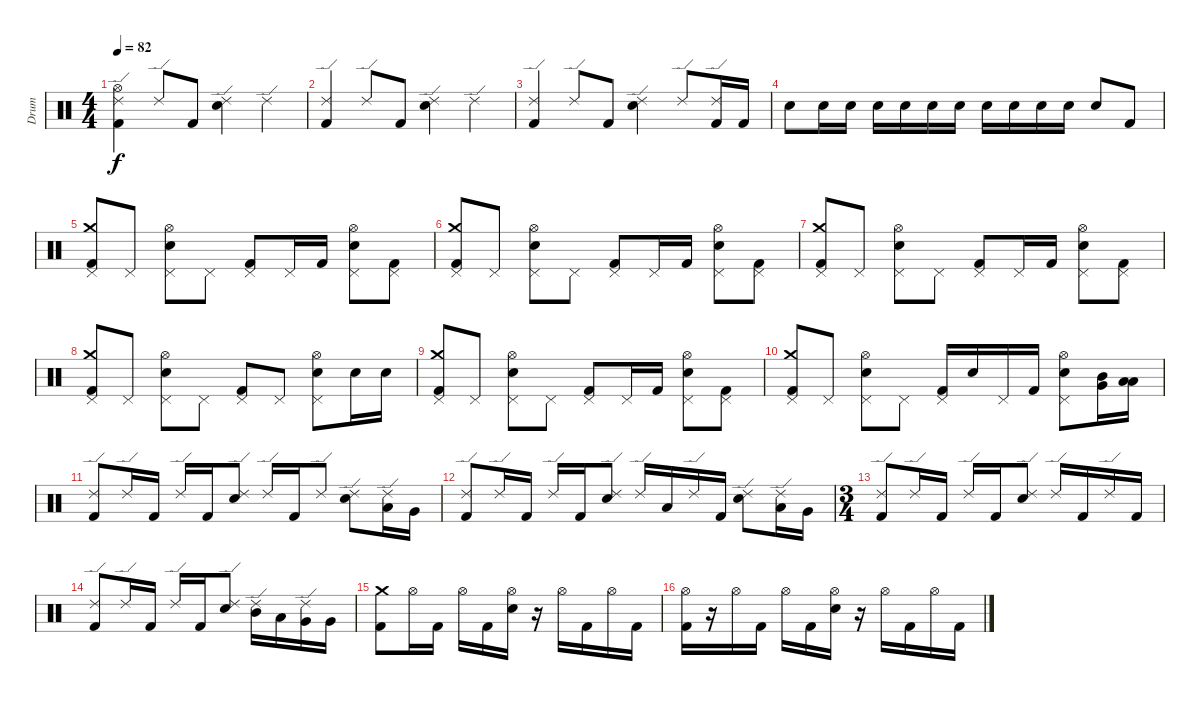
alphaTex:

\track ("Drum" "Drum") {instrument percussion}
\staff {score}
\articulation defaults
\ts (4 4)
\tempo 82
\clef neutral
\ks c
("Hi-Hat (open)" "Kick (hit) 2" "Ride (edge) 2").4{dy f} "Ride (edge) 2".8 "Kick (hit) 2".8 ("Electric Snare (hit)" "Ride (edge) 2").4 "Ride (edge) 2".4 |
("Kick (hit) 2" "Ride (edge) 2").4 "Ride (edge) 2".8 "Kick (hit) 2".8 ("Electric Snare (hit)" "Ride (edge) 2").4 "Ride (edge) 2".4 |
("Kick (hit) 2" "Ride (edge) 2").4 "Ride (edge) 2".8 "Kick (hit) 2".8 ("Electric Snare (hit)" "Ride (edge) 2").4 "Ride (edge) 2".8 ("Ride (edge) 2" "Kick (hit) 2").16 "Kick (hit) 2".16 |
"Electric Snare (hit)".8 "Electric Snare (hit)".16{volume 2} "Electric Snare (hit)".16{volume 3} "Electric Snare (hit)".16{volume 4} "Electric Snare (hit)".16{volume 5} "Electric Snare (hit)".16{volume 6} "Electric Snare (hit)".16{volume 6} "Electric Snare (hit)".16{volume 7} "Electric Snare (hit)".16{volume 8} "Electric Snare (hit)".16{volume 9} "Electric Snare (hit)".16{volume 10} "Electric Snare (hit)".8{volume 11} "Kick (hit) 2".8 |
("Crash medium (hit)" "Kick (hit) 2" "Pedal Hi-Hat (hit)").8 "Pedal Hi-Hat (hit)".8 ("Electric Snare (hit)" "Hi-Hat (open)" "Pedal Hi-Hat (hit)").8 "Pedal Hi-Hat (hit)".8 ("Kick (hit) 2" "Pedal Hi-Hat (hit)").8 "Pedal Hi-Hat (hit)".16 "Kick (hit) 2".16 ("Electric Snare (hit)" "Hi-Hat (open)" "Pedal Hi-Hat (hit)").8 ("Kick (hit) 2" "Pedal Hi-Hat (hit)").8 |
("Crash medium (hit)" "Kick (hit) 2" "Pedal Hi-Hat (hit)").8 "Pedal Hi-Hat (hit)".8 ("Electric Snare (hit)" "Hi-Hat (open)" "Pedal Hi-Hat (hit)").8 "Pedal Hi-Hat (hit)".8 ("Kick (hit) 2" "Pedal Hi-Hat (hit)").8 "Pedal Hi-Hat (hit)".16 "Kick (hit) 2".16 ("Electric Snare (hit)" "Hi-Hat (open)" "Pedal Hi-Hat (hit)").8 ("Kick (hit) 2" "Pedal Hi-Hat (hit)").8 |
("Crash medium (hit)" "Kick (hit) 2" "Pedal Hi-Hat (hit)").8 "Pedal Hi-Hat (hit)".8 ("Electric Snare (hit)" "Hi-Hat (open)" "Pedal Hi-Hat (hit)").8 "Pedal Hi-Hat (hit)".8 ("Kick (hit) 2" "Pedal Hi-Hat (hit)").8 "Pedal Hi-Hat (hit)".16 "Kick (hit) 2".16 ("Electric Snare (hit)" "Hi-Hat (open)" "Pedal Hi-Hat (hit)").8 ("Kick (hit) 2" "Pedal Hi-Hat (hit)").8 |
("Crash medium (hit)" "Kick (hit) 2" "Pedal Hi-Hat (hit)").8 "Pedal Hi-Hat (hit)".8 ("Electric Snare (hit)" "Hi-Hat (open)" "Pedal Hi-Hat (hit)").8 "Pedal Hi-Hat (hit)".8 ("Kick (hit) 2" "Pedal Hi-Hat (hit)").8 "Pedal Hi-Hat (hit)".8 ("Electric Snare (hit)" "Hi-Hat (open)" "Pedal Hi-Hat (hit)").8 "Electric Snare (hit)".16 "Electric Snare (hit)".16 |
("Crash medium (hit)" "Kick (hit) 2" "Pedal Hi-Hat (hit)").8 "Pedal Hi-Hat (hit)".8 ("Electric Snare (hit)" "Hi-Hat (open)" "Pedal Hi-Hat (hit)").8 "Pedal Hi-Hat (hit)".8 ("Kick (hit) 2" "Pedal Hi-Hat (hit)").8 "Pedal Hi-Hat (hit)".16 "Kick (hit) 2".16 ("Electric Snare (hit)" "Hi-Hat (open)" "Pedal Hi-Hat (hit)").8 ("Kick (hit) 2" "Pedal Hi-Hat (hit)").8 |
("Crash medium (hit)" "Kick (hit) 2" "Pedal Hi-Hat (hit)").8 "Pedal Hi-Hat (hit)".8 ("Electric Snare (hit)" "Hi-Hat (open)" "Pedal Hi-Hat (hit)").8 "Pedal Hi-Hat (hit)".8 ("Kick (hit) 2" "Pedal Hi-Hat (hit)").16 "Electric Snare (hit)".16 "Pedal Hi-Hat (hit)".16 "Kick (hit) 2".16 ("Electric Snare (hit)" "Hi-Hat (open)" "Pedal Hi-Hat (hit)").8 ("Mid Tom (hit)" "Very Low Tom (hit)").16 ("Low Tom (hit)" "Low Floor Tom (hit)").16 |
("Kick (hit) 2" "Ride (edge) 2").8 "Ride (edge) 2".16 "Kick (hit) 2".16 "Ride (edge) 2".16 "Kick (hit) 2".16 ("Electric Snare (hit)" "Ride (edge) 2").8 "Ride (edge) 2".16 "Kick (hit) 2".16 "Ride (edge) 2".8 ("Electric Snare (hit)" "Ride (edge) 2").8 ("Low Tom (hit)" "Ride (edge) 2").16 "Very Low Tom (hit)".16 |
("Kick (hit) 2" "Ride (edge) 2").8 "Ride (edge) 2".16 "Kick (hit) 2".16 "Ride (edge) 2".16 "Kick (hit) 2".16 ("Electric Snare (hit)" "Ride (edge) 2").8 "Ride (edge) 2".16 "Low Tom (hit)".16 "Ride (edge) 2".16 "Kick (hit) 2".16 ("Electric Snare (hit)" "Ride (edge) 2").8 ("Low Tom (hit)" "Ride (edge) 2").16 "Very Low Tom (hit)".16 |
\ts (3 4)
("Kick (hit) 2" "Ride (edge) 2").8 "Ride (edge) 2".16 "Kick (hit) 2".16 "Ride (edge) 2".16 "Kick (hit) 2".16 ("Electric Snare (hit)" "Ride (edge) 2").8 "Ride (edge) 2".16 "Kick (hit) 2".16 "Ride (edge) 2".16 "Kick (hit) 2".16 |
("Kick (hit) 2" "Ride (edge) 2").8 "Ride (edge) 2".16 "Kick (hit) 2".16 "Ride (edge) 2".16 "Kick (hit) 2".16 ("Electric Snare (hit)" "Ride (edge) 2").8 ("Mid Tom (hit)" "Ride (edge) 2").16 "Low Tom (hit)".16 ("Very Low Tom (hit)" "Ride (edge) 2").16 "Very Low Tom (hit)".16 |
("Crash medium (hit)" "Kick (hit) 2").8 "Hi-Hat (open)".16 "Kick (hit) 2".16 "Hi-Hat (open)".16 "Kick (hit) 2".16 ("Hi-Hat (open)" "Electric Snare (hit)").16 r.16 "Hi-Hat (open)".16 "Kick (hit) 2".16 "Hi-Hat (open)".16 "Kick (hit) 2".16 |
("Hi-Hat (open)" "Kick (hit) 2").16 r.16 "Hi-Hat (open)".16 "Kick (hit) 2".16 "Hi-Hat (open)".16 "Kick (hit) 2".16 ("Hi-Hat (open)" "Electric Snare (hit)").16 r.16 "Hi-Hat (open)".16 "Kick (hit) 2".16 "Hi-Hat (open)".16 "Kick (hit) 2".16
